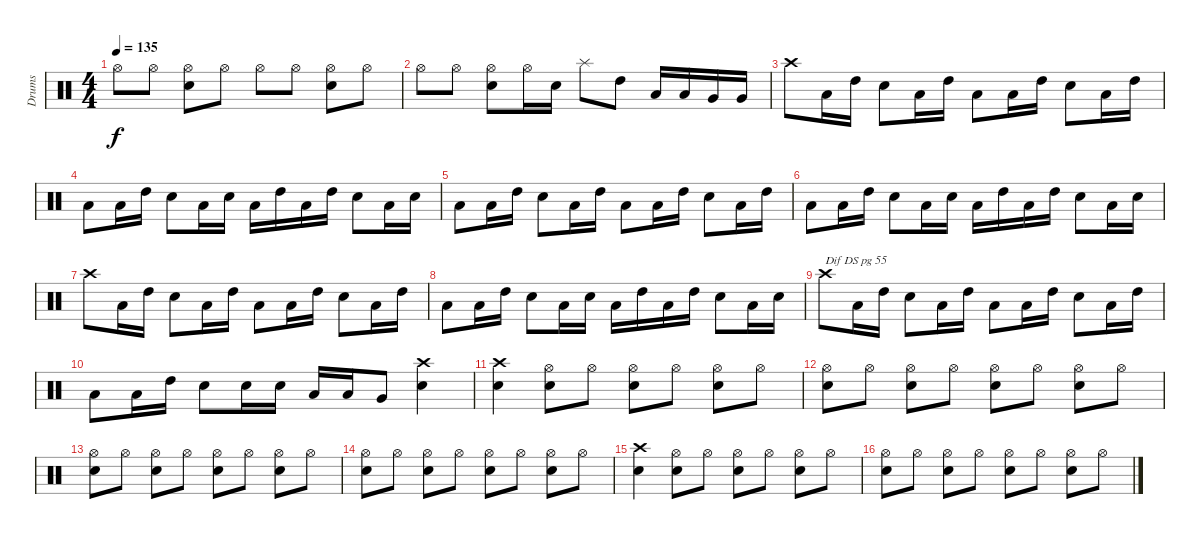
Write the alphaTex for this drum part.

\track ("Drums" "Drums") {instrument percussion}
\staff {score}
\articulation defaults
\ts (4 4)
\tempo 135
\clef neutral
\ks c "Hi-Hat (open)".8{dy f} "Hi-Hat (open)".8
("Hi-Hat (open)" "Snare (hit) 2").8 "Hi-Hat (open)".8 "Hi-Hat (open)".8 "Hi-Hat (open)".8 ("Hi-Hat (open)" "Snare (hit) 2").8 "Hi-Hat (open)".8 |
"Hi-Hat (open)".8 "Hi-Hat (open)".8 ("Hi-Hat (open)" "Snare (hit) 2").8 "Hi-Hat (open)".16 "Snare (hit) 2".16 "Splash (hit)".8 "High Tom (hit)".8 "Low Tom (hit)".16 "Low Tom (hit)".16 "Very Low Tom (hit)".16 "Very Low Tom (hit)".16 |
"Crash high (hit)".8 "Low Tom (hit)".16 "High Tom (hit)".16 "Snare (hit) 2".8 "Low Tom (hit)".16 "High Tom (hit)".16 "Low Tom (hit)".8 "Low Tom (hit)".16 "High Tom (hit)".16 "Snare (hit) 2".8 "Low Tom (hit)".16 "High Tom (hit)".16 |
"Low Tom (hit)".8 "Low Tom (hit)".16 "High Tom (hit)".16 "Snare (hit) 2".8 "Low Tom (hit)".16 "Snare (hit) 2".16 "Low Tom (hit)".16 "High Tom (hit)".16 "Low Tom (hit)".16 "High Tom (hit)".16 "Snare (hit) 2".8 "Low Tom (hit)".16 "Snare (hit) 2".16 |
"Low Tom (hit)".8 "Low Tom (hit)".16 "High Tom (hit)".16 "Snare (hit) 2".8 "Low Tom (hit)".16 "High Tom (hit)".16 "Low Tom (hit)".8 "Low Tom (hit)".16 "High Tom (hit)".16 "Snare (hit) 2".8 "Low Tom (hit)".16 "High Tom (hit)".16 |
"Low Tom (hit)".8 "Low Tom (hit)".16 "High Tom (hit)".16 "Snare (hit) 2".8 "Low Tom (hit)".16 "Snare (hit) 2".16 "Low Tom (hit)".16 "High Tom (hit)".16 "Low Tom (hit)".16 "High Tom (hit)".16 "Snare (hit) 2".8 "Low Tom (hit)".16 "Snare (hit) 2".16 |
"Crash high (hit)".8 "Low Tom (hit)".16 "High Tom (hit)".16 "Snare (hit) 2".8 "Low Tom (hit)".16 "High Tom (hit)".16 "Low Tom (hit)".8 "Low Tom (hit)".16 "High Tom (hit)".16 "Snare (hit) 2".8 "Low Tom (hit)".16 "High Tom (hit)".16 |
"Low Tom (hit)".8 "Low Tom (hit)".16 "High Tom (hit)".16 "Snare (hit) 2".8 "Low Tom (hit)".16 "Snare (hit) 2".16 "Low Tom (hit)".16 "High Tom (hit)".16 "Low Tom (hit)".16 "High Tom (hit)".16 "Snare (hit) 2".8 "Low Tom (hit)".16 "Snare (hit) 2".16 |
"Crash high (hit)".8{txt "Dif DS pg 55"} "Low Tom (hit)".16 "High Tom (hit)".16 "Snare (hit) 2".8 "Low Tom (hit)".16 "High Tom (hit)".16 "Low Tom (hit)".8 "Low Tom (hit)".16 "High Tom (hit)".16 "Snare (hit) 2".8 "Low Tom (hit)".16 "High Tom (hit)".16 |
"Low Tom (hit)".8 "Low Tom (hit)".16 "High Tom (hit)".16 "Snare (hit) 2".8 "Snare (hit) 2".16 "Snare (hit) 2".16 "Low Tom (hit)".16 "Low Tom (hit)".16 "Very Low Tom (hit)".8 ("Crash high (hit)" "Snare (hit) 2").4 |
("Crash high (hit)" "Snare (hit) 2").4 ("Hi-Hat (open)" "Snare (hit) 2").8 "Hi-Hat (open)".8 ("Hi-Hat (open)" "Snare (hit) 2").8 "Hi-Hat (open)".8 ("Hi-Hat (open)" "Snare (hit) 2").8 "Hi-Hat (open)".8 |
("Hi-Hat (open)" "Snare (hit) 2").8 "Hi-Hat (open)".8 ("Hi-Hat (open)" "Snare (hit) 2").8 "Hi-Hat (open)".8 ("Hi-Hat (open)" "Snare (hit) 2").8 "Hi-Hat (open)".8 ("Hi-Hat (open)" "Snare (hit) 2").8 "Hi-Hat (open)".8 |
("Hi-Hat (open)" "Snare (hit) 2").8 "Hi-Hat (open)".8 ("Hi-Hat (open)" "Snare (hit) 2").8 "Hi-Hat (open)".8 ("Hi-Hat (open)" "Snare (hit) 2").8 "Hi-Hat (open)".8 ("Hi-Hat (open)" "Snare (hit) 2").8 "Hi-Hat (open)".8 |
("Hi-Hat (open)" "Snare (hit) 2").8 "Hi-Hat (open)".8 ("Hi-Hat (open)" "Snare (hit) 2").8 "Hi-Hat (open)".8 ("Hi-Hat (open)" "Snare (hit) 2").8 "Hi-Hat (open)".8 ("Hi-Hat (open)" "Snare (hit) 2").8 "Hi-Hat (open)".8 |
("Crash high (hit)" "Snare (hit) 2").4 ("Hi-Hat (open)" "Snare (hit) 2").8 "Hi-Hat (open)".8 ("Hi-Hat (open)" "Snare (hit) 2").8 "Hi-Hat (open)".8 ("Hi-Hat (open)" "Snare (hit) 2").8 "Hi-Hat (open)".8 |
("Hi-Hat (open)" "Snare (hit) 2").8 "Hi-Hat (open)".8 ("Hi-Hat (open)" "Snare (hit) 2").8 "Hi-Hat (open)".8 ("Hi-Hat (open)" "Snare (hit) 2").8 "Hi-Hat (open)".8 ("Hi-Hat (open)" "Snare (hit) 2").8 "Hi-Hat (open)".8
